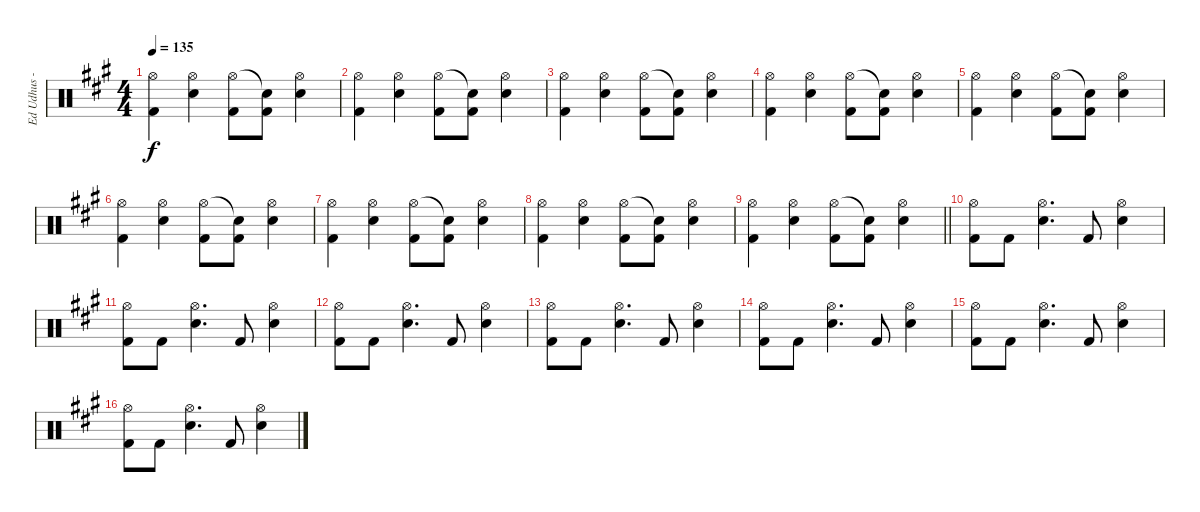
\track ("Ed Udhus - Drums" "Ed Udhus -") {instrument percussion bank 127}
\staff {score}
\articulation defaults
\ts (4 4)
\tempo 135
\clef neutral
\ks a
("Hi-Hat (open)" "Kick (hit) 2").4{dy f} ("Hi-Hat (open)" "Snare (hit) 2").4 ("Hi-Hat (open)" "Kick (hit) 2").8 ("Snare (hit)"{t} "Kick (hit) 2").8 ("Hi-Hat (open)" "Snare (hit) 2").4 |
("Hi-Hat (open)" "Kick (hit) 2").4 ("Hi-Hat (open)" "Snare (hit) 2").4 ("Hi-Hat (open)" "Kick (hit) 2").8 ("Snare (hit)"{t} "Kick (hit) 2").8 ("Hi-Hat (open)" "Snare (hit) 2").4 |
("Hi-Hat (open)" "Kick (hit) 2").4 ("Hi-Hat (open)" "Snare (hit) 2").4 ("Hi-Hat (open)" "Kick (hit) 2").8 ("Snare (hit)"{t} "Kick (hit) 2").8 ("Hi-Hat (open)" "Snare (hit) 2").4 |
("Hi-Hat (open)" "Kick (hit) 2").4 ("Hi-Hat (open)" "Snare (hit) 2").4 ("Hi-Hat (open)" "Kick (hit) 2").8 ("Snare (hit)"{t} "Kick (hit) 2").8 ("Hi-Hat (open)" "Snare (hit) 2").4 |
("Hi-Hat (open)" "Kick (hit) 2").4 ("Hi-Hat (open)" "Snare (hit) 2").4 ("Hi-Hat (open)" "Kick (hit) 2").8 ("Snare (hit)"{t} "Kick (hit) 2").8 ("Hi-Hat (open)" "Snare (hit) 2").4 |
("Hi-Hat (open)" "Kick (hit) 2").4 ("Hi-Hat (open)" "Snare (hit) 2").4 ("Hi-Hat (open)" "Kick (hit) 2").8 ("Snare (hit)"{t} "Kick (hit) 2").8 ("Hi-Hat (open)" "Snare (hit) 2").4 |
("Hi-Hat (open)" "Kick (hit) 2").4 ("Hi-Hat (open)" "Snare (hit) 2").4 ("Hi-Hat (open)" "Kick (hit) 2").8 ("Snare (hit)"{t} "Kick (hit) 2").8 ("Hi-Hat (open)" "Snare (hit) 2").4 |
("Hi-Hat (open)" "Kick (hit) 2").4 ("Hi-Hat (open)" "Snare (hit) 2").4 ("Hi-Hat (open)" "Kick (hit) 2").8 ("Snare (hit)"{t} "Kick (hit) 2").8 ("Hi-Hat (open)" "Snare (hit) 2").4 |
\barLineRight lightlight
("Hi-Hat (open)" "Kick (hit) 2").4 ("Hi-Hat (open)" "Snare (hit) 2").4 ("Hi-Hat (open)" "Kick (hit) 2").8 ("Snare (hit)"{t} "Kick (hit) 2").8 ("Hi-Hat (open)" "Snare (hit) 2").4 |
("Hi-Hat (open)" "Kick (hit) 2").8 "Kick (hit) 2".8 ("Hi-Hat (open)" "Snare (hit) 2").4{d} "Kick (hit) 2".8 ("Hi-Hat (open)" "Snare (hit) 2").4 |
("Hi-Hat (open)" "Kick (hit) 2").8 "Kick (hit) 2".8 ("Hi-Hat (open)" "Snare (hit) 2").4{d} "Kick (hit) 2".8 ("Hi-Hat (open)" "Snare (hit) 2").4 |
("Hi-Hat (open)" "Kick (hit) 2").8 "Kick (hit) 2".8 ("Hi-Hat (open)" "Snare (hit) 2").4{d} "Kick (hit) 2".8 ("Hi-Hat (open)" "Snare (hit) 2").4 |
("Hi-Hat (open)" "Kick (hit) 2").8 "Kick (hit) 2".8 ("Hi-Hat (open)" "Snare (hit) 2").4{d} "Kick (hit) 2".8 ("Hi-Hat (open)" "Snare (hit) 2").4 |
("Hi-Hat (open)" "Kick (hit) 2").8 "Kick (hit) 2".8 ("Hi-Hat (open)" "Snare (hit) 2").4{d} "Kick (hit) 2".8 ("Hi-Hat (open)" "Snare (hit) 2").4 |
("Hi-Hat (open)" "Kick (hit) 2").8 "Kick (hit) 2".8 ("Hi-Hat (open)" "Snare (hit) 2").4{d} "Kick (hit) 2".8 ("Hi-Hat (open)" "Snare (hit) 2").4 |
("Hi-Hat (open)" "Kick (hit) 2").8 "Kick (hit) 2".8 ("Hi-Hat (open)" "Snare (hit) 2").4{d} "Kick (hit) 2".8 ("Hi-Hat (open)" "Snare (hit) 2").4
